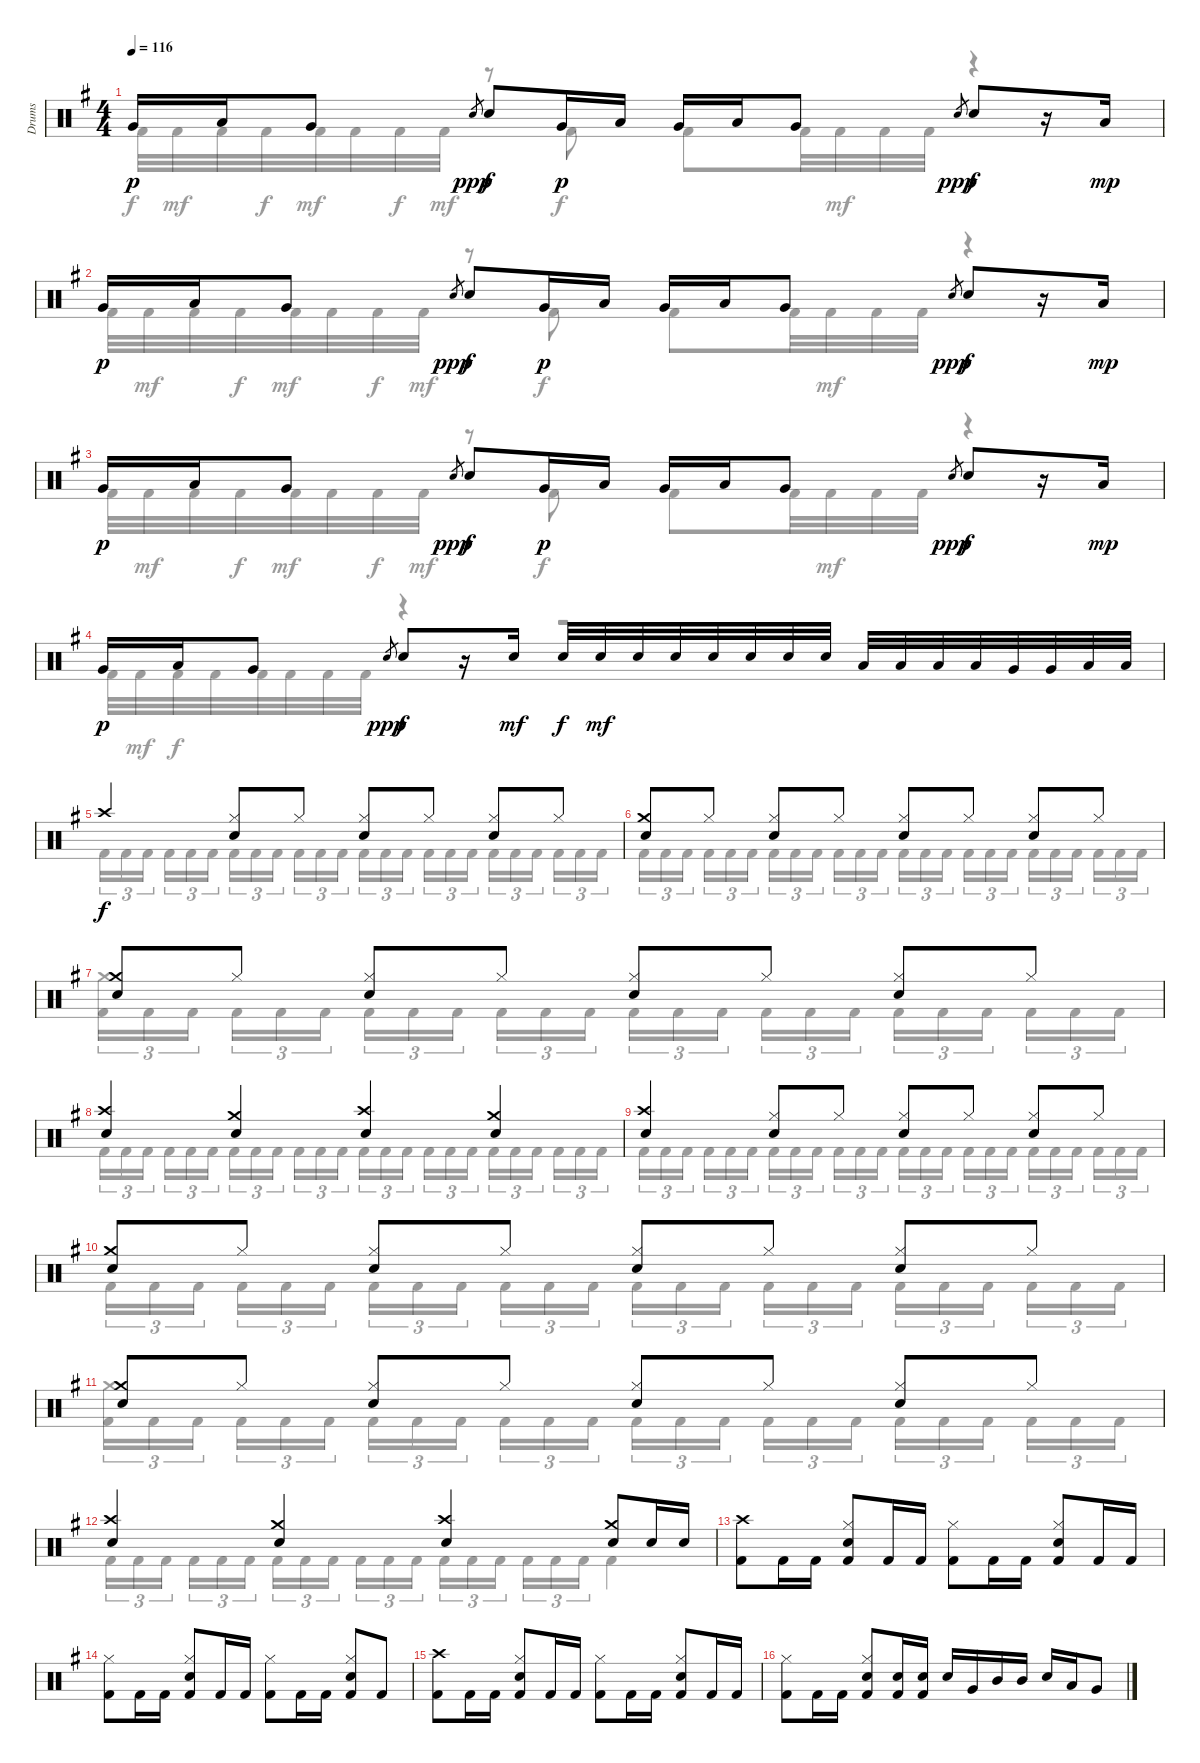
\track ("Drums" "Drums") {instrument percussion}
\staff {score}
\articulation defaults
\voice
\ts (4 4)
\tempo 116
\clef neutral
\ks eminor "Very Low Tom (hit)".16{dy p} "Low Floor Tom (hit)".16 "Very Low Tom (hit)".8 "Snare (hit) 2".8{gr dy ppp} "Snare (hit) 2".8{dy f} "Very Low Tom (hit)".16{dy p} "Low Floor Tom (hit)".16 "Very Low Tom (hit)".16 "Low Floor Tom (hit)".16 "Very Low Tom (hit)".8 "Snare (hit) 2".8{gr dy ppp} "Snare (hit) 2".8{dy f}
r.16 "Low Floor Tom (hit)".16{dy mp} |
"Very Low Tom (hit)".16{dy p} "Low Floor Tom (hit)".16 "Very Low Tom (hit)".8 "Snare (hit) 2".8{gr dy ppp} "Snare (hit) 2".8{dy f} "Very Low Tom (hit)".16{dy p} "Low Floor Tom (hit)".16 "Very Low Tom (hit)".16 "Low Floor Tom (hit)".16 "Very Low Tom (hit)".8 "Snare (hit) 2".8{gr dy ppp} "Snare (hit) 2".8{dy f} r.16 "Low Floor Tom (hit)".16{dy mp} |
"Very Low Tom (hit)".16{dy p} "Low Floor Tom (hit)".16 "Very Low Tom (hit)".8 "Snare (hit) 2".8{gr dy ppp} "Snare (hit) 2".8{dy f} "Very Low Tom (hit)".16{dy p} "Low Floor Tom (hit)".16 "Very Low Tom (hit)".16 "Low Floor Tom (hit)".16 "Very Low Tom (hit)".8 "Snare (hit) 2".8{gr dy ppp} "Snare (hit) 2".8{dy f} r.16 "Low Floor Tom (hit)".16{dy mp} |
"Very Low Tom (hit)".16{dy p} "Low Floor Tom (hit)".16 "Very Low Tom (hit)".8 "Snare (hit) 2".8{gr dy ppp} "Snare (hit) 2".8{dy f} r.16 "Snare (hit) 2".16{dy mf} "Snare (hit) 2".32{dy f} "Snare (hit) 2".32{dy mf} "Snare (hit) 2".32 "Snare (hit) 2".32 "Snare (hit) 2".32 "Snare (hit) 2".32 "Snare (hit) 2".32 "Snare (hit) 2".32 "Low Tom (hit)".32 "Low Tom (hit)".32 "Low Tom (hit)".32 "Low Tom (hit)".32 "Very Low Tom (hit)".32 "Very Low Tom (hit)".32 "Low Floor Tom (hit)".32 "Low Floor Tom (hit)".32 |
"Crash high (hit)".4{dy f} ("Hi-Hat (closed)" "Snare (hit) 2").8 "Hi-Hat (closed)".8 ("Hi-Hat (closed)" "Snare (hit) 2").8 "Hi-Hat (closed)".8 ("Hi-Hat (closed)" "Snare (hit) 2").8 "Hi-Hat (closed)".8 |
("Crash medium (hit)" "Snare (hit) 2").8 "Hi-Hat (closed)".8 ("Hi-Hat (closed)" "Snare (hit) 2").8 "Hi-Hat (closed)".8 ("Hi-Hat (closed)" "Snare (hit) 2").8 "Hi-Hat (closed)".8 ("Hi-Hat (closed)" "Snare (hit) 2").8 "Hi-Hat (closed)".8 |
("Crash medium (hit)" "Snare (hit) 2").8 "Hi-Hat (closed)".8 ("Hi-Hat (closed)" "Snare (hit) 2").8 "Hi-Hat (closed)".8 ("Hi-Hat (closed)" "Snare (hit) 2").8 "Hi-Hat (closed)".8 ("Hi-Hat (closed)" "Snare (hit) 2").8 "Hi-Hat (closed)".8 |
("Crash high (hit)" "Snare (hit) 2").4 ("Crash medium (hit)" "Snare (hit) 2").4 ("Crash high (hit)" "Snare (hit) 2").4 ("Crash medium (hit)" "Snare (hit) 2").4 |
("Crash high (hit)" "Snare (hit) 2").4 ("Hi-Hat (closed)" "Snare (hit) 2").8 "Hi-Hat (closed)".8 ("Hi-Hat (closed)" "Snare (hit) 2").8 "Hi-Hat (closed)".8 ("Hi-Hat (closed)" "Snare (hit) 2").8 "Hi-Hat (closed)".8 |
("Crash medium (hit)" "Snare (hit) 2").8 "Hi-Hat (closed)".8 ("Hi-Hat (closed)" "Snare (hit) 2").8 "Hi-Hat (closed)".8 ("Hi-Hat (closed)" "Snare (hit) 2").8 "Hi-Hat (closed)".8 ("Hi-Hat (closed)" "Snare (hit) 2").8 "Hi-Hat (closed)".8 |
("Crash medium (hit)" "Snare (hit) 2").8 "Hi-Hat (closed)".8 ("Hi-Hat (closed)" "Snare (hit) 2").8 "Hi-Hat (closed)".8 ("Hi-Hat (closed)" "Snare (hit) 2").8 "Hi-Hat (closed)".8 ("Hi-Hat (closed)" "Snare (hit) 2").8 "Hi-Hat (closed)".8 |
("Crash high (hit)" "Snare (hit) 2").4 ("Crash medium (hit)" "Snare (hit) 2").4 ("Crash high (hit)" "Snare (hit) 2").4 ("Crash medium (hit)" "Snare (hit) 2").8 "Snare (hit) 2".16 "Snare (hit) 2".16 |
("Crash high (hit)" "Kick (hit) 2").8 "Kick (hit) 2".16 "Kick (hit) 2".16 ("Hi-Hat (closed)" "Snare (hit) 2" "Kick (hit) 2").8 "Kick (hit) 2".16 "Kick (hit) 2".16 ("Hi-Hat (closed)" "Kick (hit) 2").8 "Kick (hit) 2".16 "Kick (hit) 2".16 ("Hi-Hat (closed)" "Snare (hit) 2" "Kick (hit) 2").8 "Kick (hit) 2".16 "Kick (hit) 2".16 |
("Hi-Hat (closed)" "Kick (hit) 2").8 "Kick (hit) 2".16 "Kick (hit) 2".16 ("Hi-Hat (closed)" "Snare (hit) 2" "Kick (hit) 2").8 "Kick (hit) 2".16 "Kick (hit) 2".16 ("Hi-Hat (closed)" "Kick (hit) 2").8 "Kick (hit) 2".16 "Kick (hit) 2".16 ("Hi-Hat (closed)" "Snare (hit) 2" "Kick (hit) 2").8 "Kick (hit) 2".8 |
("Crash high (hit)" "Kick (hit) 2").8 "Kick (hit) 2".16 "Kick (hit) 2".16 ("Hi-Hat (closed)" "Snare (hit) 2" "Kick (hit) 2").8 "Kick (hit) 2".16 "Kick (hit) 2".16 ("Hi-Hat (closed)" "Kick (hit) 2").8 "Kick (hit) 2".16 "Kick (hit) 2".16 ("Hi-Hat (closed)" "Snare (hit) 2" "Kick (hit) 2").8 "Kick (hit) 2".16 "Kick (hit) 2".16 |
("Hi-Hat (closed)" "Kick (hit) 2").8 "Kick (hit) 2".16 "Kick (hit) 2".16 ("Hi-Hat (closed)" "Snare (hit) 2" "Kick (hit) 2").8 ("Snare (hit) 2" "Kick (hit) 2").16 ("Snare (hit) 2" "Kick (hit) 2").16 "Snare (hit) 2".16 "Very Low Tom (hit)".16 "Mid Tom (hit)".16 "Mid Tom (hit)".16 "Snare (hit) 2".16 "Low Tom (hit)".16 "Very Low Tom (hit)".8
\voice
\clef neutral
\ottava regular
\simile none
\ks eminor "Kick (hit) 2".32{dy f} "Kick (hit) 2".32{dy mf} "Kick (hit) 2".32 "Kick (hit) 2".32{dy f} "Kick (hit) 2".32{dy mf} "Kick (hit) 2".32 "Kick (hit) 2".32{dy f} "Kick (hit) 2".32{dy mf}
r.8 "Kick (hit) 2".8{dy f} "Kick (hit) 2".8 "Kick (hit) 2".32 "Kick (hit) 2".32{dy mf} "Kick (hit) 2".32 "Kick (hit) 2".32{dy f} r.4 |
"Kick (hit) 2".32 "Kick (hit) 2".32{dy mf} "Kick (hit) 2".32 "Kick (hit) 2".32{dy f} "Kick (hit) 2".32{dy mf} "Kick (hit) 2".32 "Kick (hit) 2".32{dy f} "Kick (hit) 2".32{dy mf} r.8 "Kick (hit) 2".8{dy f} "Kick (hit) 2".8 "Kick (hit) 2".32 "Kick (hit) 2".32{dy mf} "Kick (hit) 2".32 "Kick (hit) 2".32{dy f} r.4 |
"Kick (hit) 2".32 "Kick (hit) 2".32{dy mf} "Kick (hit) 2".32 "Kick (hit) 2".32{dy f} "Kick (hit) 2".32{dy mf} "Kick (hit) 2".32 "Kick (hit) 2".32{dy f} "Kick (hit) 2".32{dy mf} r.8 "Kick (hit) 2".8{dy f} "Kick (hit) 2".8 "Kick (hit) 2".32 "Kick (hit) 2".32{dy mf} "Kick (hit) 2".32 "Kick (hit) 2".32{dy f} r.4 |
"Kick (hit) 2".32 "Kick (hit) 2".32{dy mf} "Kick (hit) 2".32{dy f} "Kick (hit) 2".32 "Kick (hit) 2".32 "Kick (hit) 2".32 "Kick (hit) 2".32 "Kick (hit) 2".32 r.4 r.2 |
"Kick (hit) 2".16{tu (3 2)} "Kick (hit) 2".16{tu (3 2)} "Kick (hit) 2".16{tu (3 2) beam splitsecondary} "Kick (hit) 2".16{tu (3 2)} "Kick (hit) 2".16{tu (3 2)} "Kick (hit) 2".16{tu (3 2)} "Kick (hit) 2".16{tu (3 2)} "Kick (hit) 2".16{tu (3 2)} "Kick (hit) 2".16{tu (3 2) beam splitsecondary} "Kick (hit) 2".16{tu (3 2)} "Kick (hit) 2".16{tu (3 2)} "Kick (hit) 2".16{tu (3 2)} "Kick (hit) 2".16{tu (3 2)} "Kick (hit) 2".16{tu (3 2)} "Kick (hit) 2".16{tu (3 2) beam splitsecondary} "Kick (hit) 2".16{tu (3 2)} "Kick (hit) 2".16{tu (3 2)} "Kick (hit) 2".16{tu (3 2)} "Kick (hit) 2".16{tu (3 2)} "Kick (hit) 2".16{tu (3 2)} "Kick (hit) 2".16{tu (3 2) beam splitsecondary} "Kick (hit) 2".16{tu (3 2)} "Kick (hit) 2".16{tu (3 2)} "Kick (hit) 2".16{tu (3 2)} |
"Kick (hit) 2".16{tu (3 2)} "Kick (hit) 2".16{tu (3 2)} "Kick (hit) 2".16{tu (3 2) beam splitsecondary} "Kick (hit) 2".16{tu (3 2)} "Kick (hit) 2".16{tu (3 2)} "Kick (hit) 2".16{tu (3 2)} "Kick (hit) 2".16{tu (3 2)} "Kick (hit) 2".16{tu (3 2)} "Kick (hit) 2".16{tu (3 2) beam splitsecondary} "Kick (hit) 2".16{tu (3 2)} "Kick (hit) 2".16{tu (3 2)} "Kick (hit) 2".16{tu (3 2)} "Kick (hit) 2".16{tu (3 2)} "Kick (hit) 2".16{tu (3 2)} "Kick (hit) 2".16{tu (3 2) beam splitsecondary} "Kick (hit) 2".16{tu (3 2)} "Kick (hit) 2".16{tu (3 2)} "Kick (hit) 2".16{tu (3 2)} "Kick (hit) 2".16{tu (3 2)} "Kick (hit) 2".16{tu (3 2)} "Kick (hit) 2".16{tu (3 2) beam splitsecondary} "Kick (hit) 2".16{tu (3 2)} "Kick (hit) 2".16{tu (3 2)} "Kick (hit) 2".16{tu (3 2)} |
("Crash medium (hit)" "Kick (hit) 2").16{tu (3 2)} "Kick (hit) 2".16{tu (3 2)} "Kick (hit) 2".16{tu (3 2) beam splitsecondary} "Kick (hit) 2".16{tu (3 2)} "Kick (hit) 2".16{tu (3 2)} "Kick (hit) 2".16{tu (3 2)} "Kick (hit) 2".16{tu (3 2)} "Kick (hit) 2".16{tu (3 2)} "Kick (hit) 2".16{tu (3 2) beam splitsecondary} "Kick (hit) 2".16{tu (3 2)} "Kick (hit) 2".16{tu (3 2)} "Kick (hit) 2".16{tu (3 2)} "Kick (hit) 2".16{tu (3 2)} "Kick (hit) 2".16{tu (3 2)} "Kick (hit) 2".16{tu (3 2) beam splitsecondary} "Kick (hit) 2".16{tu (3 2)} "Kick (hit) 2".16{tu (3 2)} "Kick (hit) 2".16{tu (3 2)} "Kick (hit) 2".16{tu (3 2)} "Kick (hit) 2".16{tu (3 2)} "Kick (hit) 2".16{tu (3 2) beam splitsecondary} "Kick (hit) 2".16{tu (3 2)} "Kick (hit) 2".16{tu (3 2)} "Kick (hit) 2".16{tu (3 2)} |
"Kick (hit) 2".16{tu (3 2)} "Kick (hit) 2".16{tu (3 2)} "Kick (hit) 2".16{tu (3 2) beam splitsecondary} "Kick (hit) 2".16{tu (3 2)} "Kick (hit) 2".16{tu (3 2)} "Kick (hit) 2".16{tu (3 2)} "Kick (hit) 2".16{tu (3 2)} "Kick (hit) 2".16{tu (3 2)} "Kick (hit) 2".16{tu (3 2) beam splitsecondary} "Kick (hit) 2".16{tu (3 2)} "Kick (hit) 2".16{tu (3 2)} "Kick (hit) 2".16{tu (3 2)} "Kick (hit) 2".16{tu (3 2)} "Kick (hit) 2".16{tu (3 2)} "Kick (hit) 2".16{tu (3 2) beam splitsecondary} "Kick (hit) 2".16{tu (3 2)} "Kick (hit) 2".16{tu (3 2)} "Kick (hit) 2".16{tu (3 2)} "Kick (hit) 2".16{tu (3 2)} "Kick (hit) 2".16{tu (3 2)} "Kick (hit) 2".16{tu (3 2) beam splitsecondary} "Kick (hit) 2".16{tu (3 2)} "Kick (hit) 2".16{tu (3 2)} "Kick (hit) 2".16{tu (3 2)} |
"Kick (hit) 2".16{tu (3 2)} "Kick (hit) 2".16{tu (3 2)} "Kick (hit) 2".16{tu (3 2) beam splitsecondary} "Kick (hit) 2".16{tu (3 2)} "Kick (hit) 2".16{tu (3 2)} "Kick (hit) 2".16{tu (3 2)} "Kick (hit) 2".16{tu (3 2)} "Kick (hit) 2".16{tu (3 2)} "Kick (hit) 2".16{tu (3 2) beam splitsecondary} "Kick (hit) 2".16{tu (3 2)} "Kick (hit) 2".16{tu (3 2)} "Kick (hit) 2".16{tu (3 2)} "Kick (hit) 2".16{tu (3 2)} "Kick (hit) 2".16{tu (3 2)} "Kick (hit) 2".16{tu (3 2) beam splitsecondary} "Kick (hit) 2".16{tu (3 2)} "Kick (hit) 2".16{tu (3 2)} "Kick (hit) 2".16{tu (3 2)} "Kick (hit) 2".16{tu (3 2)} "Kick (hit) 2".16{tu (3 2)} "Kick (hit) 2".16{tu (3 2) beam splitsecondary} "Kick (hit) 2".16{tu (3 2)} "Kick (hit) 2".16{tu (3 2)} "Kick (hit) 2".16{tu (3 2)} |
"Kick (hit) 2".16{tu (3 2)} "Kick (hit) 2".16{tu (3 2)} "Kick (hit) 2".16{tu (3 2) beam splitsecondary} "Kick (hit) 2".16{tu (3 2)} "Kick (hit) 2".16{tu (3 2)} "Kick (hit) 2".16{tu (3 2)} "Kick (hit) 2".16{tu (3 2)} "Kick (hit) 2".16{tu (3 2)} "Kick (hit) 2".16{tu (3 2) beam splitsecondary} "Kick (hit) 2".16{tu (3 2)} "Kick (hit) 2".16{tu (3 2)} "Kick (hit) 2".16{tu (3 2)} "Kick (hit) 2".16{tu (3 2)} "Kick (hit) 2".16{tu (3 2)} "Kick (hit) 2".16{tu (3 2) beam splitsecondary} "Kick (hit) 2".16{tu (3 2)} "Kick (hit) 2".16{tu (3 2)} "Kick (hit) 2".16{tu (3 2)} "Kick (hit) 2".16{tu (3 2)} "Kick (hit) 2".16{tu (3 2)} "Kick (hit) 2".16{tu (3 2) beam splitsecondary} "Kick (hit) 2".16{tu (3 2)} "Kick (hit) 2".16{tu (3 2)} "Kick (hit) 2".16{tu (3 2)} |
("Crash medium (hit)" "Kick (hit) 2").16{tu (3 2)} "Kick (hit) 2".16{tu (3 2)} "Kick (hit) 2".16{tu (3 2) beam splitsecondary} "Kick (hit) 2".16{tu (3 2)} "Kick (hit) 2".16{tu (3 2)} "Kick (hit) 2".16{tu (3 2)} "Kick (hit) 2".16{tu (3 2)} "Kick (hit) 2".16{tu (3 2)} "Kick (hit) 2".16{tu (3 2) beam splitsecondary} "Kick (hit) 2".16{tu (3 2)} "Kick (hit) 2".16{tu (3 2)} "Kick (hit) 2".16{tu (3 2)} "Kick (hit) 2".16{tu (3 2)} "Kick (hit) 2".16{tu (3 2)} "Kick (hit) 2".16{tu (3 2) beam splitsecondary} "Kick (hit) 2".16{tu (3 2)} "Kick (hit) 2".16{tu (3 2)} "Kick (hit) 2".16{tu (3 2)} "Kick (hit) 2".16{tu (3 2)} "Kick (hit) 2".16{tu (3 2)} "Kick (hit) 2".16{tu (3 2) beam splitsecondary} "Kick (hit) 2".16{tu (3 2)} "Kick (hit) 2".16{tu (3 2)} "Kick (hit) 2".16{tu (3 2)} |
"Kick (hit) 2".16{tu (3 2)} "Kick (hit) 2".16{tu (3 2)} "Kick (hit) 2".16{tu (3 2) beam splitsecondary} "Kick (hit) 2".16{tu (3 2)} "Kick (hit) 2".16{tu (3 2)} "Kick (hit) 2".16{tu (3 2)} "Kick (hit) 2".16{tu (3 2)} "Kick (hit) 2".16{tu (3 2)} "Kick (hit) 2".16{tu (3 2) beam splitsecondary} "Kick (hit) 2".16{tu (3 2)} "Kick (hit) 2".16{tu (3 2)} "Kick (hit) 2".16{tu (3 2)} "Kick (hit) 2".16{tu (3 2)} "Kick (hit) 2".16{tu (3 2)} "Kick (hit) 2".16{tu (3 2) beam splitsecondary} "Kick (hit) 2".16{tu (3 2)} "Kick (hit) 2".16{tu (3 2)} "Kick (hit) 2".16{tu (3 2)} "Kick (hit) 2".4 |
|
|
|
